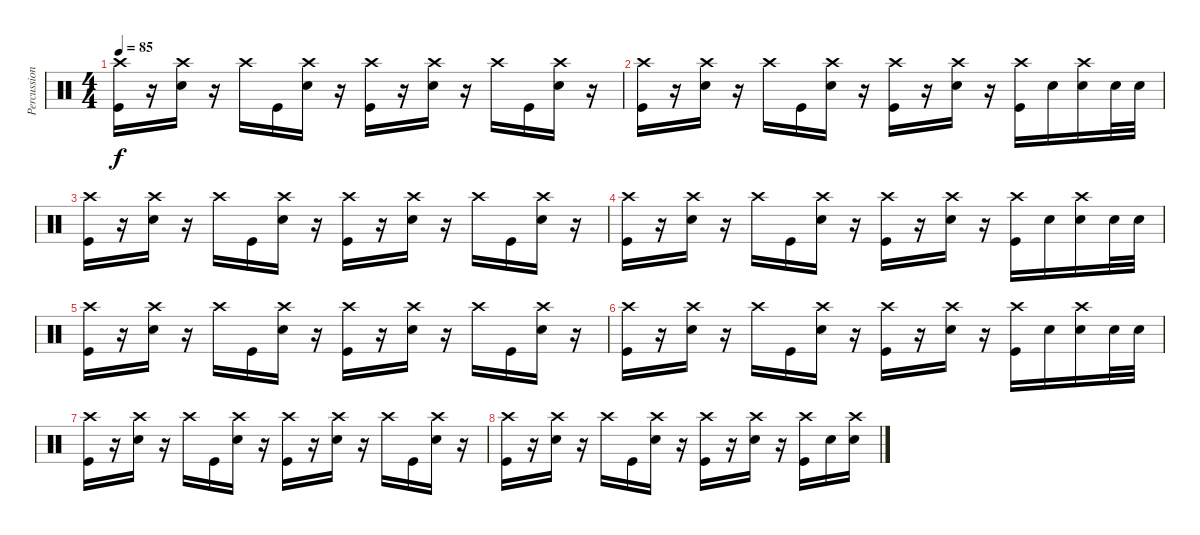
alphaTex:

\track ("Percussion" "Percussion") {instrument percussion}
\staff {score}
\articulation defaults
\ts (4 4)
\tempo 85
\clef neutral
\ks c
("Crash high (hit)" "Kick (hit)").16{dy f} r.16 ("Crash high (hit)" "Electric Snare (hit)").16 r.16 "Crash high (hit)".16 "Kick (hit)".16 ("Crash high (hit)" "Electric Snare (hit)").16 r.16 ("Crash high (hit)" "Kick (hit)").16 r.16 ("Crash high (hit)" "Electric Snare (hit)").16 r.16 "Crash high (hit)".16 "Kick (hit)".16 ("Crash high (hit)" "Electric Snare (hit)").16 r.16 |
("Crash high (hit)" "Kick (hit)").16 r.16 ("Crash high (hit)" "Electric Snare (hit)").16 r.16 "Crash high (hit)".16 "Kick (hit)".16 ("Crash high (hit)" "Electric Snare (hit)").16 r.16 ("Crash high (hit)" "Kick (hit)").16 r.16 ("Crash high (hit)" "Electric Snare (hit)").16 r.16 ("Crash high (hit)" "Kick (hit)").16 "Electric Snare (hit)".16 ("Crash high (hit)" "Electric Snare (hit)").16 "Electric Snare (hit)".32 "Electric Snare (hit)".32 |
("Crash high (hit)" "Kick (hit)").16 r.16 ("Crash high (hit)" "Electric Snare (hit)").16 r.16 "Crash high (hit)".16 "Kick (hit)".16 ("Crash high (hit)" "Electric Snare (hit)").16 r.16 ("Crash high (hit)" "Kick (hit)").16 r.16 ("Crash high (hit)" "Electric Snare (hit)").16 r.16 "Crash high (hit)".16 "Kick (hit)".16 ("Crash high (hit)" "Electric Snare (hit)").16 r.16 |
("Crash high (hit)" "Kick (hit)").16 r.16 ("Crash high (hit)" "Electric Snare (hit)").16 r.16 "Crash high (hit)".16 "Kick (hit)".16 ("Crash high (hit)" "Electric Snare (hit)").16 r.16 ("Crash high (hit)" "Kick (hit)").16 r.16 ("Crash high (hit)" "Electric Snare (hit)").16 r.16 ("Crash high (hit)" "Kick (hit)").16 "Electric Snare (hit)".16 ("Crash high (hit)" "Electric Snare (hit)").16 "Electric Snare (hit)".32 "Electric Snare (hit)".32 |
("Crash high (hit)" "Kick (hit)").16 r.16 ("Crash high (hit)" "Electric Snare (hit)").16 r.16 "Crash high (hit)".16 "Kick (hit)".16 ("Crash high (hit)" "Electric Snare (hit)").16 r.16 ("Crash high (hit)" "Kick (hit)").16 r.16 ("Crash high (hit)" "Electric Snare (hit)").16 r.16 "Crash high (hit)".16 "Kick (hit)".16 ("Crash high (hit)" "Electric Snare (hit)").16 r.16 |
("Crash high (hit)" "Kick (hit)").16 r.16 ("Crash high (hit)" "Electric Snare (hit)").16 r.16 "Crash high (hit)".16 "Kick (hit)".16 ("Crash high (hit)" "Electric Snare (hit)").16 r.16 ("Crash high (hit)" "Kick (hit)").16 r.16 ("Crash high (hit)" "Electric Snare (hit)").16 r.16 ("Crash high (hit)" "Kick (hit)").16 "Electric Snare (hit)".16 ("Crash high (hit)" "Electric Snare (hit)").16 "Electric Snare (hit)".32 "Electric Snare (hit)".32 |
("Crash high (hit)" "Kick (hit)").16 r.16 ("Crash high (hit)" "Electric Snare (hit)").16 r.16 "Crash high (hit)".16 "Kick (hit)".16 ("Crash high (hit)" "Electric Snare (hit)").16 r.16 ("Crash high (hit)" "Kick (hit)").16 r.16 ("Crash high (hit)" "Electric Snare (hit)").16 r.16 "Crash high (hit)".16 "Kick (hit)".16 ("Crash high (hit)" "Electric Snare (hit)").16 r.16 |
("Crash high (hit)" "Kick (hit)").16 r.16 ("Crash high (hit)" "Electric Snare (hit)").16 r.16 "Crash high (hit)".16 "Kick (hit)".16 ("Crash high (hit)" "Electric Snare (hit)").16 r.16 ("Crash high (hit)" "Kick (hit)").16 r.16 ("Crash high (hit)" "Electric Snare (hit)").16 r.16 ("Crash high (hit)" "Kick (hit)").16 "Electric Snare (hit)".16 ("Crash high (hit)" "Electric Snare (hit)").16
